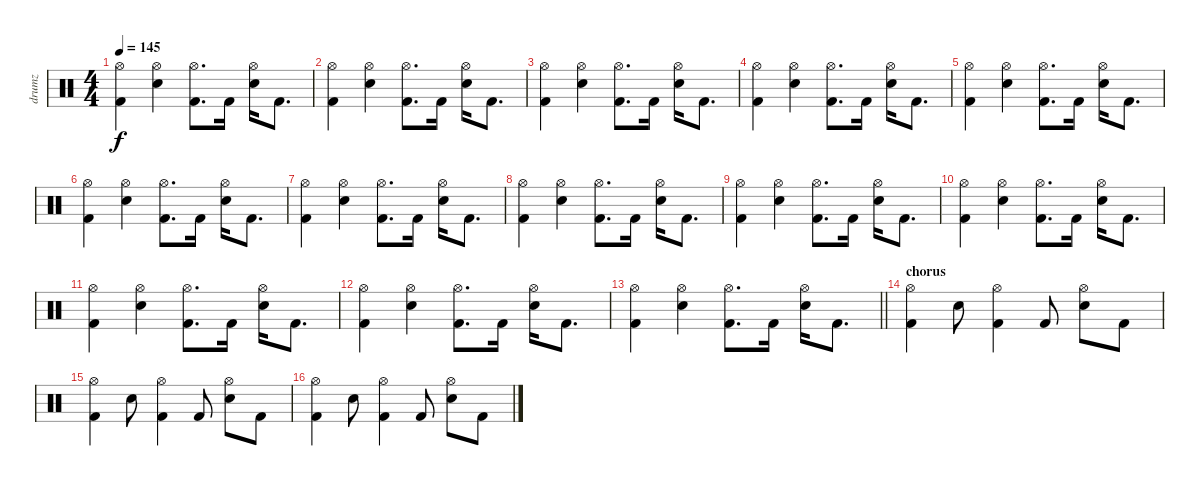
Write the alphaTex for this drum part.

\track ("drumz" "drumz") {instrument percussion}
\staff {score}
\articulation defaults
\ts (4 4)
\tempo 145
\clef neutral
\ks c
("Hi-Hat (open)" "Kick (hit) 2").4{dy f} ("Hi-Hat (open)" "Electric Snare (hit)").4 ("Hi-Hat (open)" "Kick (hit) 2").8{d} "Kick (hit) 2".16 ("Hi-Hat (open)" "Electric Snare (hit)").16 "Kick (hit) 2".8{d} |
("Hi-Hat (open)" "Kick (hit) 2").4 ("Hi-Hat (open)" "Electric Snare (hit)").4 ("Hi-Hat (open)" "Kick (hit) 2").8{d} "Kick (hit) 2".16 ("Hi-Hat (open)" "Electric Snare (hit)").16 "Kick (hit) 2".8{d} |
("Hi-Hat (open)" "Kick (hit) 2").4 ("Hi-Hat (open)" "Electric Snare (hit)").4 ("Hi-Hat (open)" "Kick (hit) 2").8{d} "Kick (hit) 2".16 ("Hi-Hat (open)" "Electric Snare (hit)").16 "Kick (hit) 2".8{d} |
("Hi-Hat (open)" "Kick (hit) 2").4 ("Hi-Hat (open)" "Electric Snare (hit)").4 ("Hi-Hat (open)" "Kick (hit) 2").8{d} "Kick (hit) 2".16 ("Hi-Hat (open)" "Electric Snare (hit)").16 "Kick (hit) 2".8{d} |
("Hi-Hat (open)" "Kick (hit) 2").4 ("Hi-Hat (open)" "Electric Snare (hit)").4 ("Hi-Hat (open)" "Kick (hit) 2").8{d} "Kick (hit) 2".16 ("Hi-Hat (open)" "Electric Snare (hit)").16 "Kick (hit) 2".8{d} |
("Hi-Hat (open)" "Kick (hit) 2").4 ("Hi-Hat (open)" "Electric Snare (hit)").4 ("Hi-Hat (open)" "Kick (hit) 2").8{d} "Kick (hit) 2".16 ("Hi-Hat (open)" "Electric Snare (hit)").16 "Kick (hit) 2".8{d} |
("Hi-Hat (open)" "Kick (hit) 2").4 ("Hi-Hat (open)" "Electric Snare (hit)").4 ("Hi-Hat (open)" "Kick (hit) 2").8{d} "Kick (hit) 2".16 ("Hi-Hat (open)" "Electric Snare (hit)").16 "Kick (hit) 2".8{d} |
("Hi-Hat (open)" "Kick (hit) 2").4 ("Hi-Hat (open)" "Electric Snare (hit)").4 ("Hi-Hat (open)" "Kick (hit) 2").8{d} "Kick (hit) 2".16 ("Hi-Hat (open)" "Electric Snare (hit)").16 "Kick (hit) 2".8{d} |
("Hi-Hat (open)" "Kick (hit) 2").4 ("Hi-Hat (open)" "Electric Snare (hit)").4 ("Hi-Hat (open)" "Kick (hit) 2").8{d} "Kick (hit) 2".16 ("Hi-Hat (open)" "Electric Snare (hit)").16 "Kick (hit) 2".8{d} |
("Hi-Hat (open)" "Kick (hit) 2").4 ("Hi-Hat (open)" "Electric Snare (hit)").4 ("Hi-Hat (open)" "Kick (hit) 2").8{d} "Kick (hit) 2".16 ("Hi-Hat (open)" "Electric Snare (hit)").16 "Kick (hit) 2".8{d} |
("Hi-Hat (open)" "Kick (hit) 2").4 ("Hi-Hat (open)" "Electric Snare (hit)").4 ("Hi-Hat (open)" "Kick (hit) 2").8{d} "Kick (hit) 2".16 ("Hi-Hat (open)" "Electric Snare (hit)").16 "Kick (hit) 2".8{d} |
("Hi-Hat (open)" "Kick (hit) 2").4 ("Hi-Hat (open)" "Electric Snare (hit)").4 ("Hi-Hat (open)" "Kick (hit) 2").8{d} "Kick (hit) 2".16 ("Hi-Hat (open)" "Electric Snare (hit)").16 "Kick (hit) 2".8{d} |
\barLineRight lightlight
("Hi-Hat (open)" "Kick (hit) 2").4 ("Hi-Hat (open)" "Electric Snare (hit)").4 ("Hi-Hat (open)" "Kick (hit) 2").8{d} "Kick (hit) 2".16 ("Hi-Hat (open)" "Electric Snare (hit)").16 "Kick (hit) 2".8{d} |
\section ("" "chorus")
("Hi-Hat (open)" "Kick (hit) 2").4 "Electric Snare (hit)".8 ("Hi-Hat (open)" "Kick (hit) 2").4 "Kick (hit) 2".8 ("Hi-Hat (open)" "Electric Snare (hit)").8 "Kick (hit) 2".8 |
("Hi-Hat (open)" "Kick (hit) 2").4 "Electric Snare (hit)".8 ("Hi-Hat (open)" "Kick (hit) 2").4 "Kick (hit) 2".8 ("Hi-Hat (open)" "Electric Snare (hit)").8 "Kick (hit) 2".8 |
("Hi-Hat (open)" "Kick (hit) 2").4 "Electric Snare (hit)".8 ("Hi-Hat (open)" "Kick (hit) 2").4 "Kick (hit) 2".8 ("Hi-Hat (open)" "Electric Snare (hit)").8 "Kick (hit) 2".8
